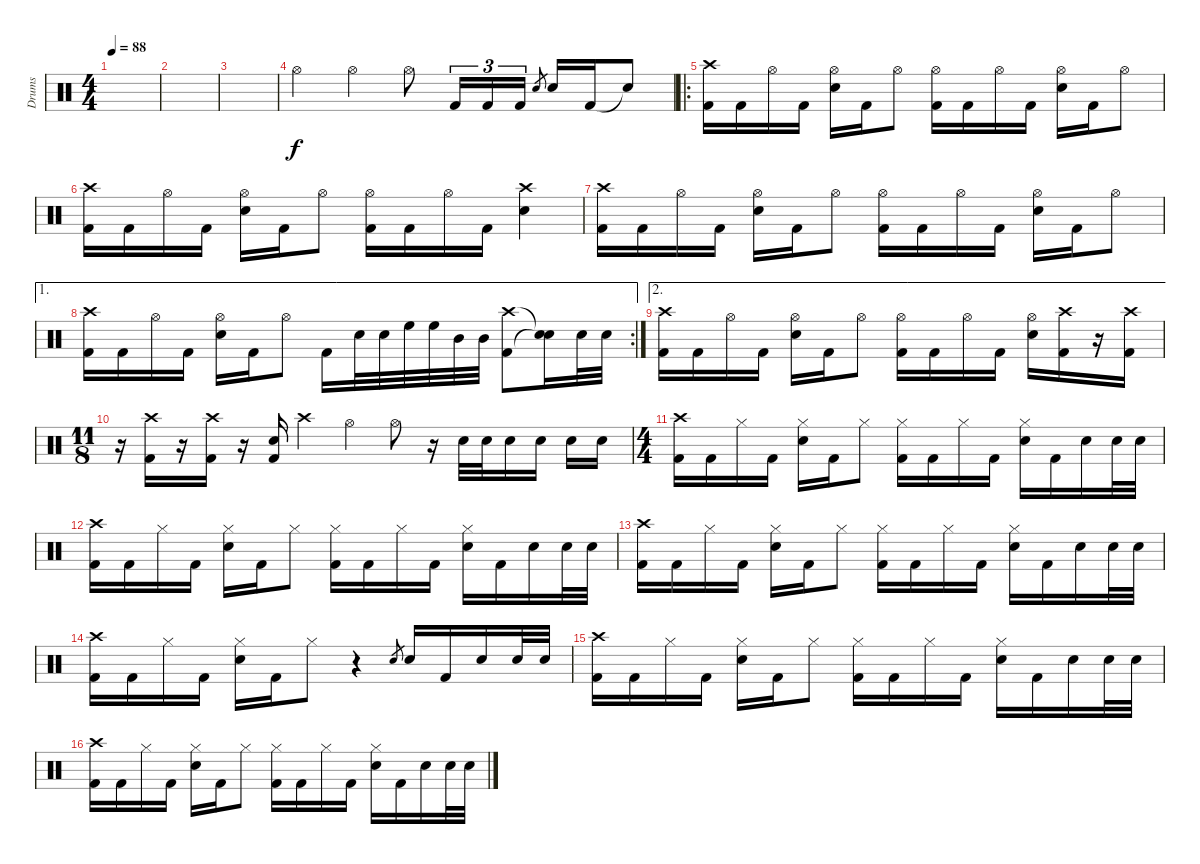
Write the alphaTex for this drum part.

\track ("Drums" "Drums") {instrument percussion}
\staff {score}
\articulation defaults
\ts (4 4)
\tempo 88
\clef neutral
\ks c
|
|
|
"Hi-Hat (open)".4 "Hi-Hat (open)".4 "Hi-Hat (open)".8 "Kick (hit) 2".16{tu (3 2)} "Kick (hit) 2".16{tu (3 2)} "Kick (hit) 2".16{tu (3 2)} "Snare (hit) 2".8{gr} "Snare (hit) 2".16 "Kick (hit) 2".16 "Snare (hit)"{t}.8 |
\ro
("Crash high (hit)" "Kick (hit) 2").16 "Kick (hit) 2".16 "Hi-Hat (open)".16 "Kick (hit) 2".16 ("Hi-Hat (open)" "Snare (hit) 2").16 "Kick (hit) 2".16 "Hi-Hat (open)".8 ("Hi-Hat (open)" "Kick (hit) 2").16 "Kick (hit) 2".16 "Hi-Hat (open)".16 "Kick (hit) 2".16 ("Hi-Hat (open)" "Snare (hit) 2").16 "Kick (hit) 2".16 "Hi-Hat (open)".8 |
("Crash high (hit)" "Kick (hit) 2").16 "Kick (hit) 2".16 "Hi-Hat (open)".16 "Kick (hit) 2".16 ("Hi-Hat (open)" "Snare (hit) 2").16 "Kick (hit) 2".16 "Hi-Hat (open)".8 ("Hi-Hat (open)" "Kick (hit) 2").16 "Kick (hit) 2".16 "Hi-Hat (open)".16 "Kick (hit) 2".16 ("Crash high (hit)" "Snare (hit) 2").4 |
("Crash high (hit)" "Kick (hit) 2").16 "Kick (hit) 2".16 "Hi-Hat (open)".16 "Kick (hit) 2".16 ("Hi-Hat (open)" "Snare (hit) 2").16 "Kick (hit) 2".16 "Hi-Hat (open)".8 ("Hi-Hat (open)" "Kick (hit) 2").16 "Kick (hit) 2".16 "Hi-Hat (open)".16 "Kick (hit) 2".16 ("Hi-Hat (open)" "Snare (hit) 2").16 "Kick (hit) 2".16 "Hi-Hat (open)".8 |
\ae 1
\rc 2
("Crash high (hit)" "Kick (hit) 2").16 "Kick (hit) 2".16 "Hi-Hat (open)".16 "Kick (hit) 2".16 ("Hi-Hat (open)" "Snare (hit) 2").16 "Kick (hit) 2".16 "Hi-Hat (open)".8 "Kick (hit) 2".16 "Snare (hit) 2".32 "Snare (hit) 2".32 "High Floor Tom (hit)".32 "High Floor Tom (hit)".32 "Mid Tom (hit)".32 "Mid Tom (hit)".32 ("Crash high (hit)" "Kick (hit) 2").8 ("Snare (hit)"{t} "Snare (hit)"{t}).16 "Snare (hit) 2".32 "Snare (hit) 2".32 |
\ae 2
("Crash high (hit)" "Kick (hit) 2").16 "Kick (hit) 2".16 "Hi-Hat (open)".16 "Kick (hit) 2".16 ("Hi-Hat (open)" "Snare (hit) 2").16 "Kick (hit) 2".16 "Hi-Hat (open)".8 ("Hi-Hat (open)" "Kick (hit) 2").16 "Kick (hit) 2".16 "Hi-Hat (open)".16 "Kick (hit) 2".16 ("Hi-Hat (open)" "Snare (hit) 2").16 ("Crash high (hit)" "Kick (hit) 2").16 r.16 ("Crash high (hit)" "Kick (hit) 2").16 |
\ts (11 8)
r.16 ("Crash high (hit)" "Kick (hit) 2").16 r.16 ("Crash high (hit)" "Kick (hit) 2").16 r.16 ("Snare (hit) 2" "Kick (hit) 2").16 "Crash high (hit)".4 "Hi-Hat (open)".4 "Hi-Hat (open)".8 r.16 "Snare (hit) 2".32 "Snare (hit) 2".32 "Snare (hit) 2".16 "Snare (hit) 2".16 "Snare (hit) 2".16 "Snare (hit) 2".16 |
\ts (4 4)
("Crash high (hit)" "Kick (hit) 2").16 "Kick (hit) 2".16 "Hi-Hat (closed)".16 "Kick (hit) 2".16 ("Hi-Hat (closed)" "Snare (hit) 2").16 "Kick (hit) 2".16 "Hi-Hat (closed)".8 ("Hi-Hat (closed)" "Kick (hit) 2").16 "Kick (hit) 2".16 "Hi-Hat (closed)".16 "Kick (hit) 2".16 ("Hi-Hat (closed)" "Snare (hit) 2").16 "Kick (hit) 2".16 "Snare (hit) 2".16 "Snare (hit) 2".32 "Snare (hit) 2".32 |
("Crash high (hit)" "Kick (hit) 2").16 "Kick (hit) 2".16 "Hi-Hat (closed)".16 "Kick (hit) 2".16 ("Hi-Hat (closed)" "Snare (hit) 2").16 "Kick (hit) 2".16 "Hi-Hat (closed)".8 ("Hi-Hat (closed)" "Kick (hit) 2").16 "Kick (hit) 2".16 "Hi-Hat (closed)".16 "Kick (hit) 2".16 ("Hi-Hat (closed)" "Snare (hit) 2").16 "Kick (hit) 2".16 "Snare (hit) 2".16 "Snare (hit) 2".32 "Snare (hit) 2".32 |
("Crash high (hit)" "Kick (hit) 2").16 "Kick (hit) 2".16 "Hi-Hat (closed)".16 "Kick (hit) 2".16 ("Hi-Hat (closed)" "Snare (hit) 2").16 "Kick (hit) 2".16 "Hi-Hat (closed)".8 ("Hi-Hat (closed)" "Kick (hit) 2").16 "Kick (hit) 2".16 "Hi-Hat (closed)".16 "Kick (hit) 2".16 ("Hi-Hat (closed)" "Snare (hit) 2").16 "Kick (hit) 2".16 "Snare (hit) 2".16 "Snare (hit) 2".32 "Snare (hit) 2".32 |
("Crash high (hit)" "Kick (hit) 2").16 "Kick (hit) 2".16 "Hi-Hat (closed)".16 "Kick (hit) 2".16 ("Hi-Hat (closed)" "Snare (hit) 2").16 "Kick (hit) 2".16 "Hi-Hat (closed)".8 r.4 "Snare (hit) 2".8{gr} "Snare (hit) 2".16 "Kick (hit) 2".16 "Snare (hit) 2".16 "Snare (hit) 2".32 "Snare (hit) 2".32 |
("Crash high (hit)" "Kick (hit) 2").16 "Kick (hit) 2".16 "Hi-Hat (closed)".16 "Kick (hit) 2".16 ("Hi-Hat (closed)" "Snare (hit) 2").16 "Kick (hit) 2".16 "Hi-Hat (closed)".8 ("Hi-Hat (closed)" "Kick (hit) 2").16 "Kick (hit) 2".16 "Hi-Hat (closed)".16 "Kick (hit) 2".16 ("Hi-Hat (closed)" "Snare (hit) 2").16 "Kick (hit) 2".16 "Snare (hit) 2".16 "Snare (hit) 2".32 "Snare (hit) 2".32 |
("Crash high (hit)" "Kick (hit) 2").16 "Kick (hit) 2".16 "Hi-Hat (closed)".16 "Kick (hit) 2".16 ("Hi-Hat (closed)" "Snare (hit) 2").16 "Kick (hit) 2".16 "Hi-Hat (closed)".8 ("Hi-Hat (closed)" "Kick (hit) 2").16 "Kick (hit) 2".16 "Hi-Hat (closed)".16 "Kick (hit) 2".16 ("Hi-Hat (closed)" "Snare (hit) 2").16 "Kick (hit) 2".16 "Snare (hit) 2".16 "Snare (hit) 2".32 "Snare (hit) 2".32
